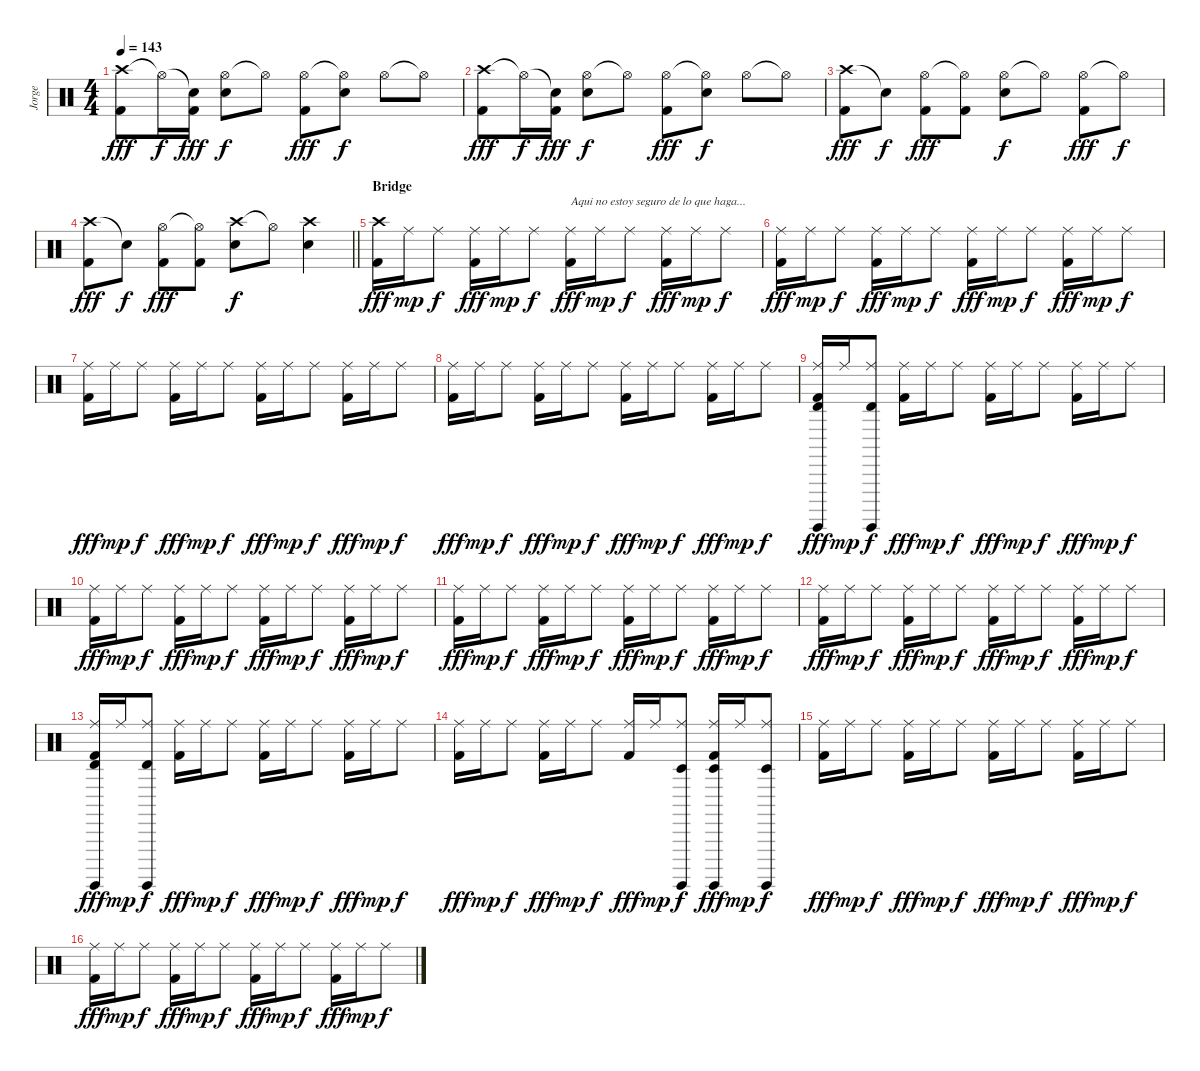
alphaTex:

\track ("Jorge" "Jorge") {instrument percussion}
\staff {score}
\articulation defaults
\ts (4 4)
\tempo 143
\clef neutral
\ks c
("Crash high (hit)" "Kick (hit) 2").8{dy fff} "Hi-Hat (open)"{t}.16{dy f} ("Snare (hit)"{t} "Kick (hit) 2").16{dy fff} ("Hi-Hat (open)" "Electric Snare (hit)").8{dy f} "Hi-Hat (open)"{t}.8 ("Hi-Hat (open)" "Kick (hit) 2").8{dy fff} ("Hi-Hat (open)"{t} "Electric Snare (hit)").8{dy f} "Hi-Hat (open)".8 "Hi-Hat (open)"{t}.8 |
("Crash high (hit)" "Kick (hit) 2").8{dy fff} "Hi-Hat (open)"{t}.16{dy f} ("Snare (hit)"{t} "Kick (hit) 2").16{dy fff} ("Hi-Hat (open)" "Electric Snare (hit)").8{dy f} "Hi-Hat (open)"{t}.8 ("Hi-Hat (open)" "Kick (hit) 2").8{dy fff} ("Hi-Hat (open)"{t} "Electric Snare (hit)").8{dy f} "Hi-Hat (open)".8 "Hi-Hat (open)"{t}.8 |
("Crash high (hit)" "Kick (hit) 2").8{dy fff} "Snare (hit)"{t}.8{dy f} ("Hi-Hat (open)" "Kick (hit) 2").8{dy fff} ("Hi-Hat (open)"{t} "Kick (hit) 2").8 ("Hi-Hat (open)" "Electric Snare (hit)").8{dy f} "Hi-Hat (open)"{t}.8 ("Hi-Hat (open)" "Kick (hit) 2").8{dy fff} "Hi-Hat (open)"{t}.8{dy f} |
\barLineRight lightlight
("Crash high (hit)" "Kick (hit) 2").8{dy fff} "Snare (hit)"{t}.8{dy f} ("Hi-Hat (open)" "Kick (hit) 2").8{dy fff} ("Hi-Hat (open)"{t} "Kick (hit) 2").8 ("Crash high (hit)" "Electric Snare (hit)").8{dy f} "Hi-Hat (open)"{t}.8 ("Crash high (hit)" "Electric Snare (hit)").4 |
\section ("" "Bridge")
("Crash high (hit)" "Kick (hit) 2").16{dy fff} "Ride (middle)".16{dy mp} "Ride (middle)".8{dy f} ("Ride (middle)" "Kick (hit) 2").16{dy fff} "Ride (middle)".16{dy mp} "Ride (middle)".8{dy f} ("Ride (middle)" "Kick (hit) 2").16{txt "Aqui no estoy seguro de lo que haga..." dy fff} "Ride (middle)".16{dy mp} "Ride (middle)".8{dy f} ("Ride (middle)" "Kick (hit) 2").16{dy fff} "Ride (middle)".16{dy mp} "Ride (middle)".8{dy f} |
("Ride (middle)" "Kick (hit) 2").16{dy fff} "Ride (middle)".16{dy mp} "Ride (middle)".8{dy f} ("Ride (middle)" "Kick (hit) 2").16{dy fff} "Ride (middle)".16{dy mp} "Ride (middle)".8{dy f} ("Ride (middle)" "Kick (hit) 2").16{dy fff} "Ride (middle)".16{dy mp} "Ride (middle)".8{dy f} ("Ride (middle)" "Kick (hit) 2").16{dy fff} "Ride (middle)".16{dy mp} "Ride (middle)".8{dy f} |
("Ride (middle)" "Kick (hit) 2").16{dy fff} "Ride (middle)".16{dy mp} "Ride (middle)".8{dy f} ("Ride (middle)" "Kick (hit) 2").16{dy fff} "Ride (middle)".16{dy mp} "Ride (middle)".8{dy f} ("Ride (middle)" "Kick (hit) 2").16{dy fff} "Ride (middle)".16{dy mp} "Ride (middle)".8{dy f} ("Ride (middle)" "Kick (hit) 2").16{dy fff} "Ride (middle)".16{dy mp} "Ride (middle)".8{dy f} |
("Ride (middle)" "Kick (hit) 2").16{dy fff} "Ride (middle)".16{dy mp} "Ride (middle)".8{dy f} ("Ride (middle)" "Kick (hit) 2").16{dy fff} "Ride (middle)".16{dy mp} "Ride (middle)".8{dy f} ("Ride (middle)" "Kick (hit) 2").16{dy fff} "Ride (middle)".16{dy mp} "Ride (middle)".8{dy f} ("Ride (middle)" "Kick (hit) 2").16{dy fff} "Ride (middle)".16{dy mp} "Ride (middle)".8{dy f} |
("Surdo (hit)" "Timbale high (hit)" "Ride (middle)" "Kick (hit) 2").16{dy fff} "Ride (middle)".16{dy mp} ("Surdo (hit)" "Timbale high (hit)" "Ride (middle)").8{dy f} ("Ride (middle)" "Kick (hit) 2").16{dy fff} "Ride (middle)".16{dy mp} "Ride (middle)".8{dy f} ("Ride (middle)" "Kick (hit) 2").16{dy fff} "Ride (middle)".16{dy mp} "Ride (middle)".8{dy f} ("Ride (middle)" "Kick (hit) 2").16{dy fff} "Ride (middle)".16{dy mp} "Ride (middle)".8{dy f} |
("Ride (middle)" "Kick (hit) 2").16{dy fff} "Ride (middle)".16{dy mp} "Ride (middle)".8{dy f} ("Ride (middle)" "Kick (hit) 2").16{dy fff} "Ride (middle)".16{dy mp} "Ride (middle)".8{dy f} ("Ride (middle)" "Kick (hit) 2").16{dy fff} "Ride (middle)".16{dy mp} "Ride (middle)".8{dy f} ("Ride (middle)" "Kick (hit) 2").16{dy fff} "Ride (middle)".16{dy mp} "Ride (middle)".8{dy f} |
("Ride (middle)" "Kick (hit) 2").16{dy fff} "Ride (middle)".16{dy mp} "Ride (middle)".8{dy f} ("Ride (middle)" "Kick (hit) 2").16{dy fff} "Ride (middle)".16{dy mp} "Ride (middle)".8{dy f} ("Ride (middle)" "Kick (hit) 2").16{dy fff} "Ride (middle)".16{dy mp} "Ride (middle)".8{dy f} ("Ride (middle)" "Kick (hit) 2").16{dy fff} "Ride (middle)".16{dy mp} "Ride (middle)".8{dy f} |
("Ride (middle)" "Kick (hit) 2").16{dy fff} "Ride (middle)".16{dy mp} "Ride (middle)".8{dy f} ("Ride (middle)" "Kick (hit) 2").16{dy fff} "Ride (middle)".16{dy mp} "Ride (middle)".8{dy f} ("Ride (middle)" "Kick (hit) 2").16{dy fff} "Ride (middle)".16{dy mp} "Ride (middle)".8{dy f} ("Ride (middle)" "Kick (hit) 2").16{dy fff} "Ride (middle)".16{dy mp} "Ride (middle)".8{dy f} |
("Surdo (hit)" "Timbale high (hit)" "Ride (middle)" "Kick (hit) 2").16{dy fff} "Ride (middle)".16{dy mp} ("Surdo (hit)" "Timbale high (hit)" "Ride (middle)").8{dy f} ("Ride (middle)" "Kick (hit) 2").16{dy fff} "Ride (middle)".16{dy mp} "Ride (middle)".8{dy f} ("Ride (middle)" "Kick (hit) 2").16{dy fff} "Ride (middle)".16{dy mp} "Ride (middle)".8{dy f} ("Ride (middle)" "Kick (hit) 2").16{dy fff} "Ride (middle)".16{dy mp} "Ride (middle)".8{dy f} |
("Ride (middle)" "Kick (hit) 2").16{dy fff} "Ride (middle)".16{dy mp} "Ride (middle)".8{dy f} ("Ride (middle)" "Kick (hit) 2").16{dy fff} "Ride (middle)".16{dy mp} "Ride (middle)".8{dy f} ("Ride (middle)" "Kick (hit) 2").16{dy fff} "Ride (middle)".16{dy mp} ("Surdo (hit)" "Timbale low (hit)" "Ride (middle)").8{dy f} ("Surdo (hit)" "Timbale low (hit)" "Ride (middle)" "Kick (hit) 2").16{dy fff} "Ride (middle)".16{dy mp} ("Surdo (hit)" "Timbale low (hit)" "Ride (middle)").8{dy f} |
("Ride (middle)" "Kick (hit) 2").16{dy fff} "Ride (middle)".16{dy mp} "Ride (middle)".8{dy f} ("Ride (middle)" "Kick (hit) 2").16{dy fff} "Ride (middle)".16{dy mp} "Ride (middle)".8{dy f} ("Ride (middle)" "Kick (hit) 2").16{dy fff} "Ride (middle)".16{dy mp} "Ride (middle)".8{dy f} ("Ride (middle)" "Kick (hit) 2").16{dy fff} "Ride (middle)".16{dy mp} "Ride (middle)".8{dy f} |
("Ride (middle)" "Kick (hit) 2").16{dy fff} "Ride (middle)".16{dy mp} "Ride (middle)".8{dy f} ("Ride (middle)" "Kick (hit) 2").16{dy fff} "Ride (middle)".16{dy mp} "Ride (middle)".8{dy f} ("Ride (middle)" "Kick (hit) 2").16{dy fff} "Ride (middle)".16{dy mp} "Ride (middle)".8{dy f} ("Ride (middle)" "Kick (hit) 2").16{dy fff} "Ride (middle)".16{dy mp} "Ride (middle)".8{dy f}
